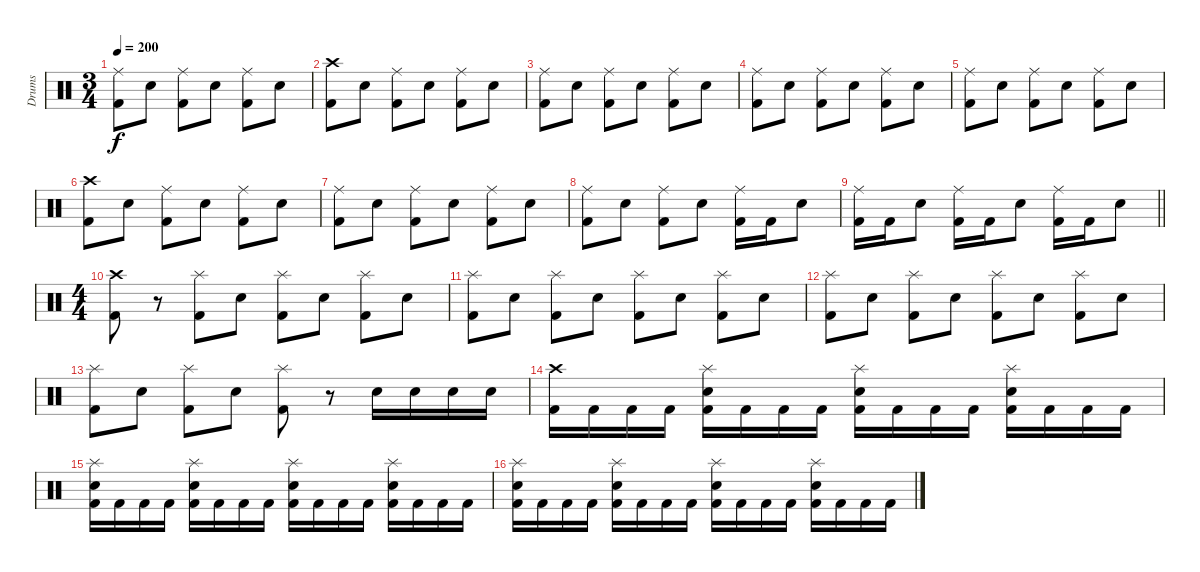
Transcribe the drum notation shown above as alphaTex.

\track ("Drums" "Drums") {instrument percussion}
\staff {score}
\articulation defaults
\ts (3 4)
\tempo 200
\clef neutral
\ks c
("Ride (middle)" "Kick (hit) 2").8{dy f} "Electric Snare (hit)".8 ("Ride (middle)" "Kick (hit) 2").8 "Electric Snare (hit)".8 ("Ride (middle)" "Kick (hit) 2").8 "Electric Snare (hit)".8 |
("Crash high (hit)" "Kick (hit) 2").8 "Electric Snare (hit)".8 ("Ride (middle)" "Kick (hit) 2").8 "Electric Snare (hit)".8 ("Ride (middle)" "Kick (hit) 2").8 "Electric Snare (hit)".8 |
("Ride (middle)" "Kick (hit) 2").8 "Electric Snare (hit)".8 ("Ride (middle)" "Kick (hit) 2").8 "Electric Snare (hit)".8 ("Ride (middle)" "Kick (hit) 2").8 "Electric Snare (hit)".8 |
("Ride (middle)" "Kick (hit) 2").8 "Electric Snare (hit)".8 ("Ride (middle)" "Kick (hit) 2").8 "Electric Snare (hit)".8 ("Ride (middle)" "Kick (hit) 2").8 "Electric Snare (hit)".8 |
("Ride (middle)" "Kick (hit) 2").8 "Electric Snare (hit)".8 ("Ride (middle)" "Kick (hit) 2").8 "Electric Snare (hit)".8 ("Ride (middle)" "Kick (hit) 2").8 "Electric Snare (hit)".8 |
("Crash high (hit)" "Kick (hit) 2").8 "Electric Snare (hit)".8 ("Ride (middle)" "Kick (hit) 2").8 "Electric Snare (hit)".8 ("Ride (middle)" "Kick (hit) 2").8 "Electric Snare (hit)".8 |
("Ride (middle)" "Kick (hit) 2").8 "Electric Snare (hit)".8 ("Ride (middle)" "Kick (hit) 2").8 "Electric Snare (hit)".8 ("Ride (middle)" "Kick (hit) 2").8 "Electric Snare (hit)".8 |
("Ride (middle)" "Kick (hit) 2").8 "Electric Snare (hit)".8 ("Ride (middle)" "Kick (hit) 2").8 "Electric Snare (hit)".8 ("Ride (middle)" "Kick (hit) 2").16 "Kick (hit) 2".16 "Electric Snare (hit)".8 |
\barLineRight lightlight
("Ride (middle)" "Kick (hit) 2").16 "Kick (hit) 2".16 "Electric Snare (hit)".8 ("Ride (middle)" "Kick (hit) 2").16 "Kick (hit) 2".16 "Electric Snare (hit)".8 ("Ride (middle)" "Kick (hit) 2").16 "Kick (hit) 2".16 "Electric Snare (hit)".8 |
\ts (4 4)
("Crash high (hit)" "Kick (hit) 2").8 r.8 ("Splash (hit)" "Kick (hit) 2").8 "Electric Snare (hit)".8 ("Splash (hit)" "Kick (hit) 2").8 "Electric Snare (hit)".8 ("Splash (hit)" "Kick (hit) 2").8 "Electric Snare (hit)".8 |
("Splash (hit)" "Kick (hit) 2").8 "Electric Snare (hit)".8 ("Splash (hit)" "Kick (hit) 2").8 "Electric Snare (hit)".8 ("Splash (hit)" "Kick (hit) 2").8 "Electric Snare (hit)".8 ("Splash (hit)" "Kick (hit) 2").8 "Electric Snare (hit)".8 |
("Splash (hit)" "Kick (hit) 2").8 "Electric Snare (hit)".8 ("Splash (hit)" "Kick (hit) 2").8 "Electric Snare (hit)".8 ("Splash (hit)" "Kick (hit) 2").8 "Electric Snare (hit)".8 ("Splash (hit)" "Kick (hit) 2").8 "Electric Snare (hit)".8 |
("Splash (hit)" "Kick (hit) 2").8 "Electric Snare (hit)".8 ("Splash (hit)" "Kick (hit) 2").8 "Electric Snare (hit)".8 ("Splash (hit)" "Kick (hit) 2").8 r.8 "Electric Snare (hit)".16 "Electric Snare (hit)".16 "Electric Snare (hit)".16 "Electric Snare (hit)".16 |
("Crash high (hit)" "Kick (hit) 2").16 "Kick (hit) 2".16 "Kick (hit) 2".16 "Kick (hit) 2".16 ("Splash (hit)" "Electric Snare (hit)" "Kick (hit) 2").16 "Kick (hit) 2".16 "Kick (hit) 2".16 "Kick (hit) 2".16 ("Splash (hit)" "Electric Snare (hit)" "Kick (hit) 2").16 "Kick (hit) 2".16 "Kick (hit) 2".16 "Kick (hit) 2".16 ("Splash (hit)" "Electric Snare (hit)" "Kick (hit) 2").16 "Kick (hit) 2".16 "Kick (hit) 2".16 "Kick (hit) 2".16 |
("Splash (hit)" "Electric Snare (hit)" "Kick (hit) 2").16 "Kick (hit) 2".16 "Kick (hit) 2".16 "Kick (hit) 2".16 ("Splash (hit)" "Electric Snare (hit)" "Kick (hit) 2").16 "Kick (hit) 2".16 "Kick (hit) 2".16 "Kick (hit) 2".16 ("Splash (hit)" "Electric Snare (hit)" "Kick (hit) 2").16 "Kick (hit) 2".16 "Kick (hit) 2".16 "Kick (hit) 2".16 ("Splash (hit)" "Electric Snare (hit)" "Kick (hit) 2").16 "Kick (hit) 2".16 "Kick (hit) 2".16 "Kick (hit) 2".16 |
("Splash (hit)" "Electric Snare (hit)" "Kick (hit) 2").16 "Kick (hit) 2".16 "Kick (hit) 2".16 "Kick (hit) 2".16 ("Splash (hit)" "Electric Snare (hit)" "Kick (hit) 2").16 "Kick (hit) 2".16 "Kick (hit) 2".16 "Kick (hit) 2".16 ("Splash (hit)" "Electric Snare (hit)" "Kick (hit) 2").16 "Kick (hit) 2".16 "Kick (hit) 2".16 "Kick (hit) 2".16 ("Splash (hit)" "Electric Snare (hit)" "Kick (hit) 2").16 "Kick (hit) 2".16 "Kick (hit) 2".16 "Kick (hit) 2".16
